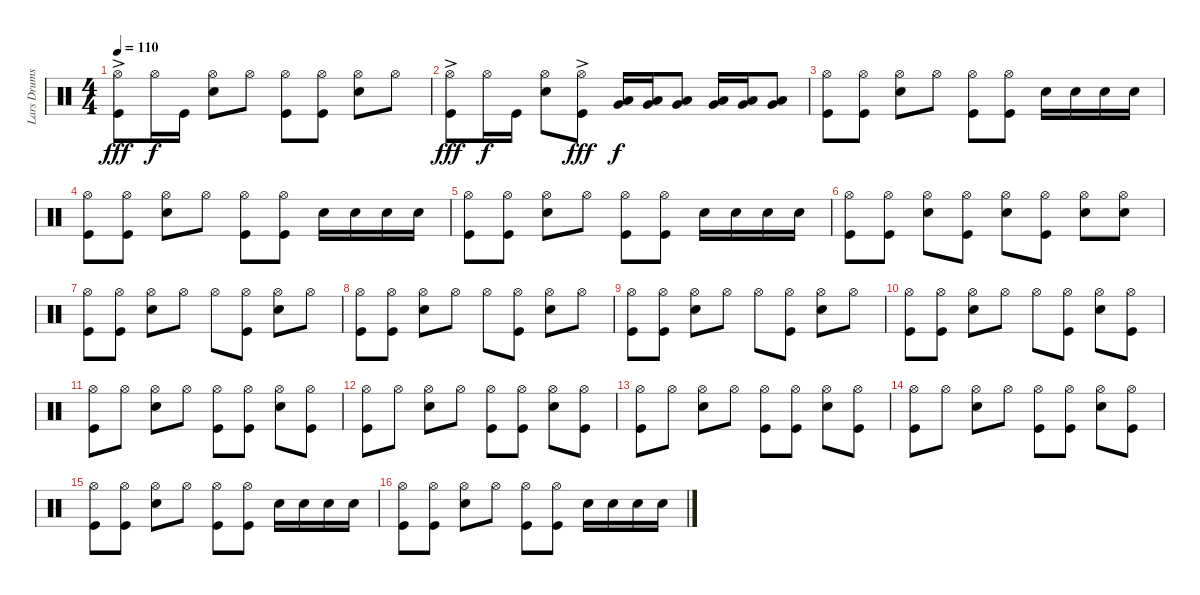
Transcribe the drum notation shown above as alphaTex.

\track ("Lars Drums" "Lars Drums") {instrument percussion}
\staff {score}
\articulation defaults
\ts (4 4)
\tempo 110
\clef neutral
\ks c
("Hi-Hat (open)" "Kick (hit)"{ac}).8{dy fff} "Hi-Hat (open)".16{dy f} "Kick (hit)".16 ("Hi-Hat (open)" "Electric Snare (hit)").8 "Hi-Hat (open)".8 ("Hi-Hat (open)" "Kick (hit)").8 ("Hi-Hat (open)" "Kick (hit)").8 ("Hi-Hat (open)" "Electric Snare (hit)").8 "Hi-Hat (open)".8 |
("Hi-Hat (open)" "Kick (hit)"{ac}).8{dy fff} "Hi-Hat (open)".16{dy f} "Kick (hit)".16 ("Hi-Hat (open)" "Electric Snare (hit)").8 ("Hi-Hat (open)" "Kick (hit)"{ac}).8{dy fff} ("Low Floor Tom (hit)" "Very Low Tom (hit)").16{dy f} ("Low Floor Tom (hit)" "Very Low Tom (hit)").16 ("Low Floor Tom (hit)" "Very Low Tom (hit)").8 ("Low Floor Tom (hit)" "Very Low Tom (hit)").16 ("Low Floor Tom (hit)" "Very Low Tom (hit)").16 ("Low Floor Tom (hit)" "Very Low Tom (hit)").8 |
("Hi-Hat (open)" "Kick (hit)").8 ("Hi-Hat (open)" "Kick (hit)").8 ("Hi-Hat (open)" "Electric Snare (hit)").8 "Hi-Hat (open)".8 ("Hi-Hat (open)" "Kick (hit)").8 ("Hi-Hat (open)" "Kick (hit)").8 "Electric Snare (hit)".16 "Electric Snare (hit)".16 "Electric Snare (hit)".16 "Electric Snare (hit)".16 |
("Hi-Hat (open)" "Kick (hit)").8 ("Hi-Hat (open)" "Kick (hit)").8 ("Hi-Hat (open)" "Electric Snare (hit)").8 "Hi-Hat (open)".8 ("Hi-Hat (open)" "Kick (hit)").8 ("Hi-Hat (open)" "Kick (hit)").8 "Electric Snare (hit)".16 "Electric Snare (hit)".16 "Electric Snare (hit)".16 "Electric Snare (hit)".16 |
("Hi-Hat (open)" "Kick (hit)").8 ("Hi-Hat (open)" "Kick (hit)").8 ("Hi-Hat (open)" "Electric Snare (hit)").8 "Hi-Hat (open)".8 ("Hi-Hat (open)" "Kick (hit)").8 ("Hi-Hat (open)" "Kick (hit)").8 "Electric Snare (hit)".16 "Electric Snare (hit)".16 "Electric Snare (hit)".16 "Electric Snare (hit)".16 |
("Hi-Hat (open)" "Kick (hit)").8 ("Hi-Hat (open)" "Kick (hit)").8 ("Hi-Hat (open)" "Electric Snare (hit)").8 ("Hi-Hat (open)" "Kick (hit)").8 ("Hi-Hat (open)" "Electric Snare (hit)").8 ("Hi-Hat (open)" "Kick (hit)").8 ("Hi-Hat (open)" "Electric Snare (hit)").8 ("Hi-Hat (open)" "Electric Snare (hit)").8 |
("Hi-Hat (open)" "Kick (hit)").8 ("Hi-Hat (open)" "Kick (hit)").8 ("Hi-Hat (open)" "Electric Snare (hit)").8 "Hi-Hat (open)".8 "Hi-Hat (open)".8 ("Hi-Hat (open)" "Kick (hit)").8 ("Hi-Hat (open)" "Electric Snare (hit)").8 "Hi-Hat (open)".8 |
("Hi-Hat (open)" "Kick (hit)").8 ("Hi-Hat (open)" "Kick (hit)").8 ("Hi-Hat (open)" "Electric Snare (hit)").8 "Hi-Hat (open)".8 "Hi-Hat (open)".8 ("Hi-Hat (open)" "Kick (hit)").8 ("Hi-Hat (open)" "Electric Snare (hit)").8 "Hi-Hat (open)".8 |
("Hi-Hat (open)" "Kick (hit)").8 ("Hi-Hat (open)" "Kick (hit)").8 ("Hi-Hat (open)" "Electric Snare (hit)").8 "Hi-Hat (open)".8 "Hi-Hat (open)".8 ("Hi-Hat (open)" "Kick (hit)").8 ("Hi-Hat (open)" "Electric Snare (hit)").8 "Hi-Hat (open)".8 |
("Hi-Hat (open)" "Kick (hit)").8 ("Hi-Hat (open)" "Kick (hit)").8 ("Hi-Hat (open)" "Electric Snare (hit)").8 "Hi-Hat (open)".8 "Hi-Hat (open)".8 ("Hi-Hat (open)" "Kick (hit)").8 ("Hi-Hat (open)" "Electric Snare (hit)").8 ("Hi-Hat (open)" "Kick (hit)").8 |
("Hi-Hat (open)" "Kick (hit)").8 "Hi-Hat (open)".8 ("Hi-Hat (open)" "Electric Snare (hit)").8 "Hi-Hat (open)".8 ("Hi-Hat (open)" "Kick (hit)").8 ("Hi-Hat (open)" "Kick (hit)").8 ("Hi-Hat (open)" "Electric Snare (hit)").8 ("Hi-Hat (open)" "Kick (hit)").8 |
("Hi-Hat (open)" "Kick (hit)").8 "Hi-Hat (open)".8 ("Hi-Hat (open)" "Electric Snare (hit)").8 "Hi-Hat (open)".8 ("Hi-Hat (open)" "Kick (hit)").8 ("Hi-Hat (open)" "Kick (hit)").8 ("Hi-Hat (open)" "Electric Snare (hit)").8 ("Hi-Hat (open)" "Kick (hit)").8 |
("Hi-Hat (open)" "Kick (hit)").8 "Hi-Hat (open)".8 ("Hi-Hat (open)" "Electric Snare (hit)").8 "Hi-Hat (open)".8 ("Hi-Hat (open)" "Kick (hit)").8 ("Hi-Hat (open)" "Kick (hit)").8 ("Hi-Hat (open)" "Electric Snare (hit)").8 ("Hi-Hat (open)" "Kick (hit)").8 |
("Hi-Hat (open)" "Kick (hit)").8 "Hi-Hat (open)".8 ("Hi-Hat (open)" "Electric Snare (hit)").8 "Hi-Hat (open)".8 ("Hi-Hat (open)" "Kick (hit)").8 ("Hi-Hat (open)" "Kick (hit)").8 ("Hi-Hat (open)" "Electric Snare (hit)").8 ("Hi-Hat (open)" "Kick (hit)").8 |
("Hi-Hat (open)" "Kick (hit)").8 ("Hi-Hat (open)" "Kick (hit)").8 ("Hi-Hat (open)" "Electric Snare (hit)").8 "Hi-Hat (open)".8 ("Hi-Hat (open)" "Kick (hit)").8 ("Hi-Hat (open)" "Kick (hit)").8 "Electric Snare (hit)".16 "Electric Snare (hit)".16 "Electric Snare (hit)".16 "Electric Snare (hit)".16 |
("Hi-Hat (open)" "Kick (hit)").8 ("Hi-Hat (open)" "Kick (hit)").8 ("Hi-Hat (open)" "Electric Snare (hit)").8 "Hi-Hat (open)".8 ("Hi-Hat (open)" "Kick (hit)").8 ("Hi-Hat (open)" "Kick (hit)").8 "Electric Snare (hit)".16 "Electric Snare (hit)".16 "Electric Snare (hit)".16 "Electric Snare (hit)".16
